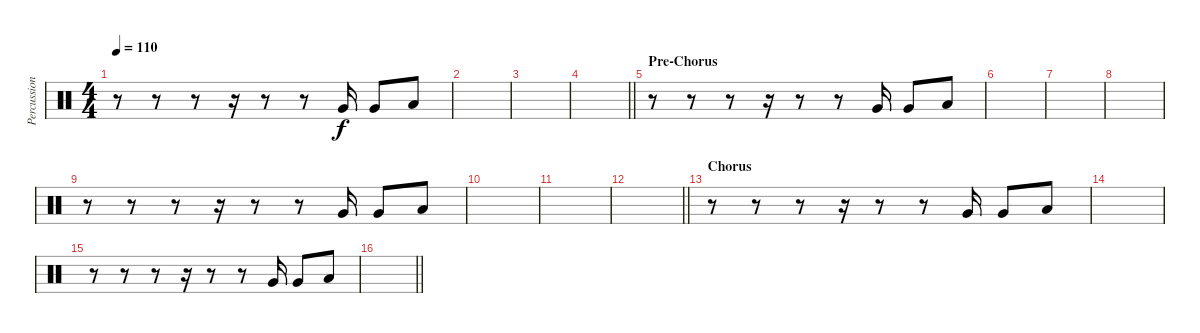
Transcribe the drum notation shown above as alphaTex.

\track ("Percussion Toms" "Percussion") {instrument percussion}
\staff {score}
\articulation defaults
\ts (4 4)
\tempo 110
\clef neutral
\ks c
r.8{dy f} r.8 r.8 r.16 r.8 r.8 "Very Low Tom (hit)".16 "Very Low Tom (hit)".8 "Low Floor Tom (hit)".8 |
|
|
\barLineRight lightlight
|
\section ("" "Pre-Chorus")
r.8 r.8 r.8 r.16 r.8 r.8 "Very Low Tom (hit)".16 "Very Low Tom (hit)".8 "Low Floor Tom (hit)".8 |
|
|
|
r.8 r.8 r.8 r.16 r.8 r.8 "Very Low Tom (hit)".16 "Very Low Tom (hit)".8 "Low Floor Tom (hit)".8 |
|
|
\barLineRight lightlight
|
\section ("" "Chorus")
r.8 r.8 r.8 r.16 r.8 r.8 "Very Low Tom (hit)".16 "Very Low Tom (hit)".8 "Low Floor Tom (hit)".8 |
|
r.8 r.8 r.8 r.16 r.8 r.8 "Very Low Tom (hit)".16 "Very Low Tom (hit)".8 "Low Floor Tom (hit)".8 |
\barLineRight lightlight
